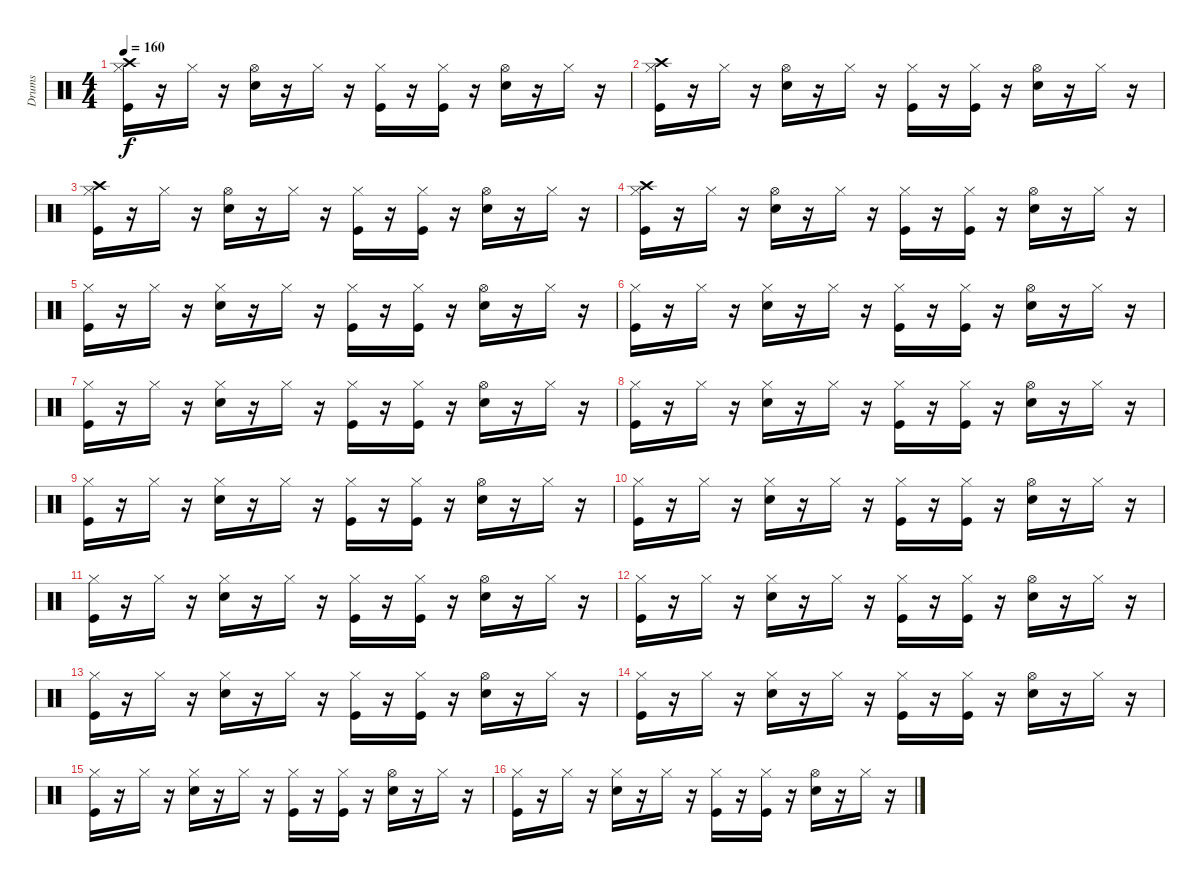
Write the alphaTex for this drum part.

\track ("Drums" "Drums") {instrument percussion}
\staff {score}
\articulation defaults
\ts (4 4)
\tempo 160
\clef neutral
\ks c
("Crash high (hit)" "Hi-Hat (closed)" "Kick (hit)").16{dy f} r.16 "Hi-Hat (closed)".16 r.16 ("Hi-Hat (open)" "Snare (hit) 2").16 r.16 "Hi-Hat (closed)".16 r.16 ("Hi-Hat (closed)" "Kick (hit)").16 r.16 ("Kick (hit)" "Hi-Hat (closed)").16 r.16 ("Hi-Hat (open)" "Snare (hit) 2").16 r.16 "Hi-Hat (closed)".16 r.16 |
("Crash high (hit)" "Hi-Hat (closed)" "Kick (hit)").16 r.16 "Hi-Hat (closed)".16 r.16 ("Hi-Hat (open)" "Snare (hit) 2").16 r.16 "Hi-Hat (closed)".16 r.16 ("Hi-Hat (closed)" "Kick (hit)").16 r.16 ("Kick (hit)" "Hi-Hat (closed)").16 r.16 ("Hi-Hat (open)" "Snare (hit) 2").16 r.16 "Hi-Hat (closed)".16 r.16 |
("Crash high (hit)" "Hi-Hat (closed)" "Kick (hit)").16 r.16 "Hi-Hat (closed)".16 r.16 ("Hi-Hat (open)" "Snare (hit) 2").16 r.16 "Hi-Hat (closed)".16 r.16 ("Hi-Hat (closed)" "Kick (hit)").16 r.16 ("Kick (hit)" "Hi-Hat (closed)").16 r.16 ("Hi-Hat (open)" "Snare (hit) 2").16 r.16 "Hi-Hat (closed)".16 r.16 |
("Crash high (hit)" "Hi-Hat (closed)" "Kick (hit)").16 r.16 "Hi-Hat (closed)".16 r.16 ("Hi-Hat (open)" "Snare (hit) 2").16 r.16 "Hi-Hat (closed)".16 r.16 ("Hi-Hat (closed)" "Kick (hit)").16 r.16 ("Kick (hit)" "Hi-Hat (closed)").16 r.16 ("Hi-Hat (open)" "Snare (hit) 2").16 r.16 "Hi-Hat (closed)".16 r.16 |
("Hi-Hat (closed)" "Kick (hit)").16 r.16 "Hi-Hat (closed)".16 r.16 ("Hi-Hat (closed)" "Snare (hit) 2").16 r.16 "Hi-Hat (closed)".16 r.16 ("Hi-Hat (closed)" "Kick (hit)").16 r.16 ("Kick (hit)" "Hi-Hat (closed)").16 r.16 ("Hi-Hat (open)" "Snare (hit) 2").16 r.16 "Hi-Hat (closed)".16 r.16 |
("Hi-Hat (closed)" "Kick (hit)").16 r.16 "Hi-Hat (closed)".16 r.16 ("Hi-Hat (closed)" "Snare (hit) 2").16 r.16 "Hi-Hat (closed)".16 r.16 ("Hi-Hat (closed)" "Kick (hit)").16 r.16 ("Kick (hit)" "Hi-Hat (closed)").16 r.16 ("Hi-Hat (open)" "Snare (hit) 2").16 r.16 "Hi-Hat (closed)".16 r.16 |
("Hi-Hat (closed)" "Kick (hit)").16 r.16 "Hi-Hat (closed)".16 r.16 ("Hi-Hat (closed)" "Snare (hit) 2").16 r.16 "Hi-Hat (closed)".16 r.16 ("Hi-Hat (closed)" "Kick (hit)").16 r.16 ("Kick (hit)" "Hi-Hat (closed)").16 r.16 ("Hi-Hat (open)" "Snare (hit) 2").16 r.16 "Hi-Hat (closed)".16 r.16 |
("Hi-Hat (closed)" "Kick (hit)").16 r.16 "Hi-Hat (closed)".16 r.16 ("Hi-Hat (closed)" "Snare (hit) 2").16 r.16 "Hi-Hat (closed)".16 r.16 ("Hi-Hat (closed)" "Kick (hit)").16 r.16 ("Kick (hit)" "Hi-Hat (closed)").16 r.16 ("Hi-Hat (open)" "Snare (hit) 2").16 r.16 "Hi-Hat (closed)".16 r.16 |
("Hi-Hat (closed)" "Kick (hit)").16 r.16 "Hi-Hat (closed)".16 r.16 ("Hi-Hat (closed)" "Snare (hit) 2").16 r.16 "Hi-Hat (closed)".16 r.16 ("Hi-Hat (closed)" "Kick (hit)").16 r.16 ("Kick (hit)" "Hi-Hat (closed)").16 r.16 ("Hi-Hat (open)" "Snare (hit) 2").16 r.16 "Hi-Hat (closed)".16 r.16 |
("Hi-Hat (closed)" "Kick (hit)").16 r.16 "Hi-Hat (closed)".16 r.16 ("Hi-Hat (closed)" "Snare (hit) 2").16 r.16 "Hi-Hat (closed)".16 r.16 ("Hi-Hat (closed)" "Kick (hit)").16 r.16 ("Kick (hit)" "Hi-Hat (closed)").16 r.16 ("Hi-Hat (open)" "Snare (hit) 2").16 r.16 "Hi-Hat (closed)".16 r.16 |
("Hi-Hat (closed)" "Kick (hit)").16 r.16 "Hi-Hat (closed)".16 r.16 ("Hi-Hat (closed)" "Snare (hit) 2").16 r.16 "Hi-Hat (closed)".16 r.16 ("Hi-Hat (closed)" "Kick (hit)").16 r.16 ("Kick (hit)" "Hi-Hat (closed)").16 r.16 ("Hi-Hat (open)" "Snare (hit) 2").16 r.16 "Hi-Hat (closed)".16 r.16 |
("Hi-Hat (closed)" "Kick (hit)").16 r.16 "Hi-Hat (closed)".16 r.16 ("Hi-Hat (closed)" "Snare (hit) 2").16 r.16 "Hi-Hat (closed)".16 r.16 ("Hi-Hat (closed)" "Kick (hit)").16 r.16 ("Kick (hit)" "Hi-Hat (closed)").16 r.16 ("Hi-Hat (open)" "Snare (hit) 2").16 r.16 "Hi-Hat (closed)".16 r.16 |
("Hi-Hat (closed)" "Kick (hit)").16 r.16 "Hi-Hat (closed)".16 r.16 ("Hi-Hat (closed)" "Snare (hit) 2").16 r.16 "Hi-Hat (closed)".16 r.16 ("Hi-Hat (closed)" "Kick (hit)").16 r.16 ("Kick (hit)" "Hi-Hat (closed)").16 r.16 ("Hi-Hat (open)" "Snare (hit) 2").16 r.16 "Hi-Hat (closed)".16 r.16 |
("Hi-Hat (closed)" "Kick (hit)").16 r.16 "Hi-Hat (closed)".16 r.16 ("Hi-Hat (closed)" "Snare (hit) 2").16 r.16 "Hi-Hat (closed)".16 r.16 ("Hi-Hat (closed)" "Kick (hit)").16 r.16 ("Kick (hit)" "Hi-Hat (closed)").16 r.16 ("Hi-Hat (open)" "Snare (hit) 2").16 r.16 "Hi-Hat (closed)".16 r.16 |
("Hi-Hat (closed)" "Kick (hit)").16 r.16 "Hi-Hat (closed)".16 r.16 ("Hi-Hat (closed)" "Snare (hit) 2").16 r.16 "Hi-Hat (closed)".16 r.16 ("Hi-Hat (closed)" "Kick (hit)").16 r.16 ("Kick (hit)" "Hi-Hat (closed)").16 r.16 ("Hi-Hat (open)" "Snare (hit) 2").16 r.16 "Hi-Hat (closed)".16 r.16 |
("Hi-Hat (closed)" "Kick (hit)").16 r.16 "Hi-Hat (closed)".16 r.16 ("Hi-Hat (closed)" "Snare (hit) 2").16 r.16 "Hi-Hat (closed)".16 r.16 ("Hi-Hat (closed)" "Kick (hit)").16 r.16 ("Kick (hit)" "Hi-Hat (closed)").16 r.16 ("Hi-Hat (open)" "Snare (hit) 2").16 r.16 "Hi-Hat (closed)".16 r.16
